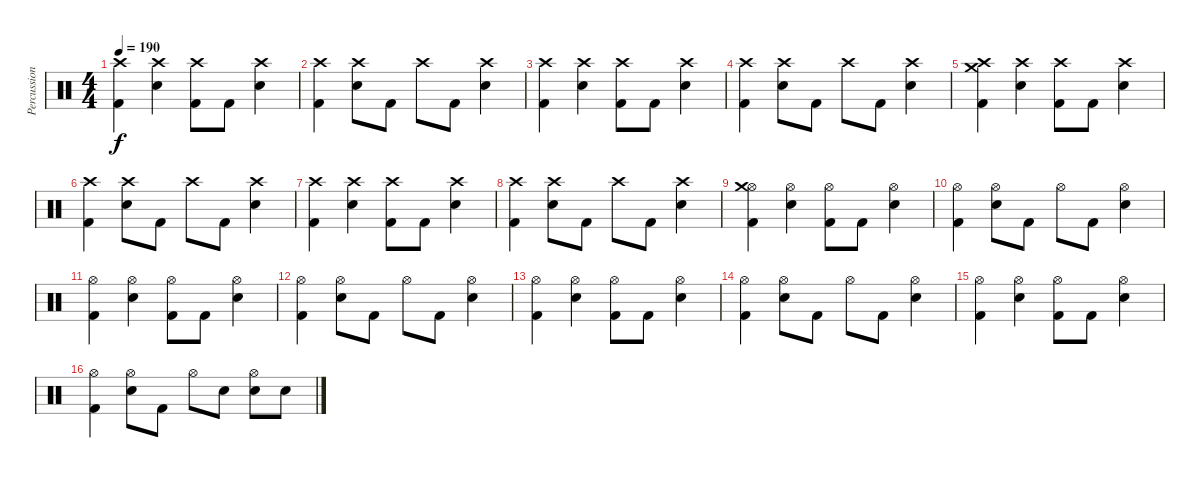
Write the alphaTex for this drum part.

\track ("Percussioni" "Percussion") {instrument percussion}
\staff {score}
\articulation defaults
\ts (4 4)
\tempo 190
\clef neutral
\ks c
("Crash high (hit)" "Kick (hit) 2").4{dy f} ("Crash high (hit)" "Snare (hit) 2").4 ("Crash high (hit)" "Kick (hit) 2").8 "Kick (hit) 2".8 ("Crash high (hit)" "Snare (hit) 2").4 |
("Crash high (hit)" "Kick (hit) 2").4 ("Crash high (hit)" "Snare (hit) 2").8 "Kick (hit) 2".8 "Crash high (hit)".8 "Kick (hit) 2".8 ("Crash high (hit)" "Snare (hit) 2").4 |
("Crash high (hit)" "Kick (hit) 2").4 ("Crash high (hit)" "Snare (hit) 2").4 ("Crash high (hit)" "Kick (hit) 2").8 "Kick (hit) 2".8 ("Crash high (hit)" "Snare (hit) 2").4 |
("Crash high (hit)" "Kick (hit) 2").4 ("Crash high (hit)" "Snare (hit) 2").8 "Kick (hit) 2".8 "Crash high (hit)".8 "Kick (hit) 2".8 ("Crash high (hit)" "Snare (hit) 2").4 |
("Crash high (hit)" "Kick (hit) 2" "Crash medium (hit)").4 ("Crash high (hit)" "Snare (hit) 2").4 ("Crash high (hit)" "Kick (hit) 2").8 "Kick (hit) 2".8 ("Crash high (hit)" "Snare (hit) 2").4 |
("Crash high (hit)" "Kick (hit) 2").4 ("Crash high (hit)" "Snare (hit) 2").8 "Kick (hit) 2".8 "Crash high (hit)".8 "Kick (hit) 2".8 ("Crash high (hit)" "Snare (hit) 2").4 |
("Crash high (hit)" "Kick (hit) 2").4 ("Crash high (hit)" "Snare (hit) 2").4 ("Crash high (hit)" "Kick (hit) 2").8 "Kick (hit) 2".8 ("Crash high (hit)" "Snare (hit) 2").4 |
("Crash high (hit)" "Kick (hit) 2").4 ("Crash high (hit)" "Snare (hit) 2").8 "Kick (hit) 2".8 "Crash high (hit)".8 "Kick (hit) 2".8 ("Crash high (hit)" "Snare (hit) 2").4 |
("Hi-Hat (open)" "Kick (hit) 2" "Crash medium (hit)").4 ("Hi-Hat (open)" "Snare (hit) 2").4 ("Hi-Hat (open)" "Kick (hit) 2").8 "Kick (hit) 2".8 ("Hi-Hat (open)" "Snare (hit) 2").4 |
("Hi-Hat (open)" "Kick (hit) 2").4 ("Hi-Hat (open)" "Snare (hit) 2").8 "Kick (hit) 2".8 "Hi-Hat (open)".8 "Kick (hit) 2".8 ("Hi-Hat (open)" "Snare (hit) 2").4 |
("Hi-Hat (open)" "Kick (hit) 2").4 ("Hi-Hat (open)" "Snare (hit) 2").4 ("Hi-Hat (open)" "Kick (hit) 2").8 "Kick (hit) 2".8 ("Hi-Hat (open)" "Snare (hit) 2").4 |
("Hi-Hat (open)" "Kick (hit) 2").4 ("Hi-Hat (open)" "Snare (hit) 2").8 "Kick (hit) 2".8 "Hi-Hat (open)".8 "Kick (hit) 2".8 ("Hi-Hat (open)" "Snare (hit) 2").4 |
("Hi-Hat (open)" "Kick (hit) 2").4 ("Hi-Hat (open)" "Snare (hit) 2").4 ("Hi-Hat (open)" "Kick (hit) 2").8 "Kick (hit) 2".8 ("Hi-Hat (open)" "Snare (hit) 2").4 |
("Hi-Hat (open)" "Kick (hit) 2").4 ("Hi-Hat (open)" "Snare (hit) 2").8 "Kick (hit) 2".8 "Hi-Hat (open)".8 "Kick (hit) 2".8 ("Hi-Hat (open)" "Snare (hit) 2").4 |
("Hi-Hat (open)" "Kick (hit) 2").4 ("Hi-Hat (open)" "Snare (hit) 2").4 ("Hi-Hat (open)" "Kick (hit) 2").8 "Kick (hit) 2".8 ("Hi-Hat (open)" "Snare (hit) 2").4 |
("Hi-Hat (open)" "Kick (hit) 2").4 ("Hi-Hat (open)" "Snare (hit) 2").8 "Kick (hit) 2".8 "Hi-Hat (open)".8 "Snare (hit) 2".8 ("Hi-Hat (open)" "Snare (hit) 2").8 "Snare (hit) 2".8
